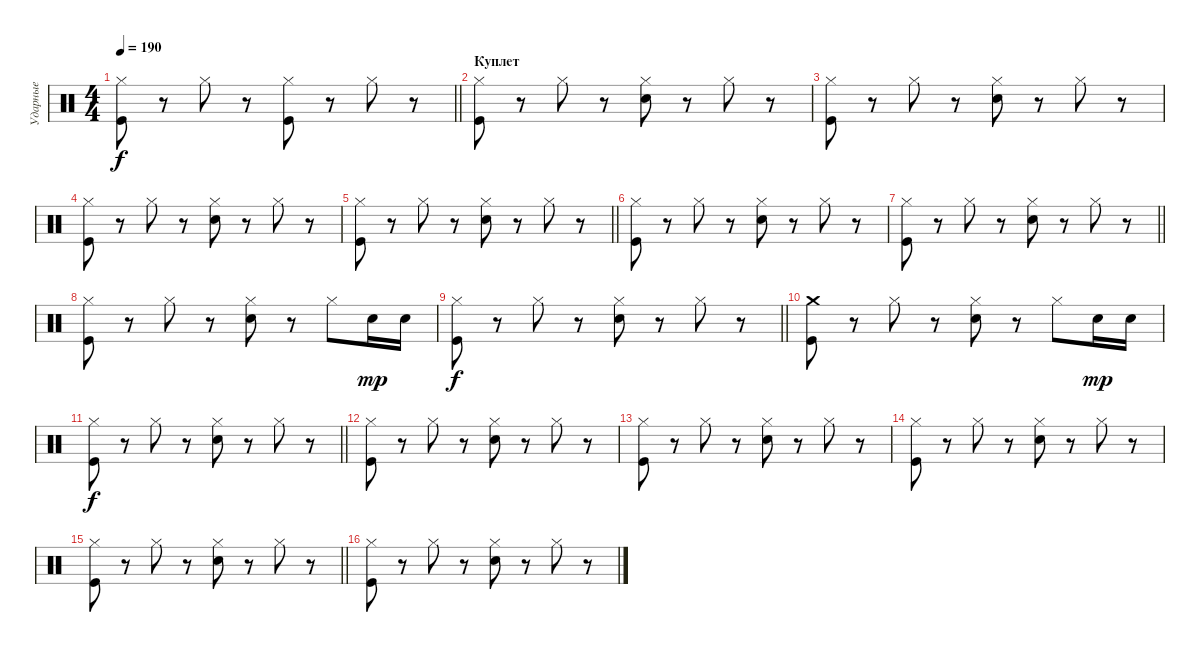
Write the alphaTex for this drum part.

\track ("Ударные" "Ударные") {instrument percussion}
\staff {score}
\articulation defaults
\ts (4 4)
\tempo 190
\clef neutral
\barLineRight lightlight
\ks c
("Hi-Hat (closed)" "Kick (hit)").8{dy f} r.8 "Hi-Hat (closed)".8 r.8 ("Hi-Hat (closed)" "Kick (hit)").8 r.8 "Hi-Hat (closed)".8 r.8 |
\section ("" "Куплет")
("Hi-Hat (closed)" "Kick (hit)").8 r.8 "Hi-Hat (closed)".8 r.8 ("Hi-Hat (closed)" "Electric Snare (hit)").8 r.8 "Hi-Hat (closed)".8 r.8 |
("Hi-Hat (closed)" "Kick (hit)").8 r.8 "Hi-Hat (closed)".8 r.8 ("Hi-Hat (closed)" "Electric Snare (hit)").8 r.8 "Hi-Hat (closed)".8 r.8 |
("Hi-Hat (closed)" "Kick (hit)").8 r.8 "Hi-Hat (closed)".8 r.8 ("Hi-Hat (closed)" "Electric Snare (hit)").8 r.8 "Hi-Hat (closed)".8 r.8 |
\barLineRight lightlight
("Hi-Hat (closed)" "Kick (hit)").8 r.8 "Hi-Hat (closed)".8 r.8 ("Hi-Hat (closed)" "Electric Snare (hit)").8 r.8 "Hi-Hat (closed)".8 r.8 |
("Hi-Hat (closed)" "Kick (hit)").8 r.8 "Hi-Hat (closed)".8 r.8 ("Hi-Hat (closed)" "Electric Snare (hit)").8 r.8 "Hi-Hat (closed)".8 r.8 |
\barLineRight lightlight
("Hi-Hat (closed)" "Kick (hit)").8 r.8 "Hi-Hat (closed)".8 r.8 ("Hi-Hat (closed)" "Electric Snare (hit)").8 r.8 "Hi-Hat (closed)".8 r.8 |
("Hi-Hat (closed)" "Kick (hit)").8 r.8 "Hi-Hat (closed)".8 r.8 ("Hi-Hat (closed)" "Electric Snare (hit)").8 r.8 "Hi-Hat (closed)".8 "Electric Snare (hit)".16{dy mp} "Electric Snare (hit)".16 |
\barLineRight lightlight
("Hi-Hat (closed)" "Kick (hit)").8{dy f} r.8 "Hi-Hat (closed)".8 r.8 ("Hi-Hat (closed)" "Electric Snare (hit)").8 r.8 "Hi-Hat (closed)".8 r.8 |
\section ("" " ")
("Crash medium (hit)" "Kick (hit)").8 r.8 "Hi-Hat (closed)".8 r.8 ("Hi-Hat (closed)" "Electric Snare (hit)").8 r.8 "Hi-Hat (closed)".8 "Electric Snare (hit)".16{dy mp} "Electric Snare (hit)".16 |
\barLineRight lightlight
("Hi-Hat (closed)" "Kick (hit)").8{dy f} r.8 "Hi-Hat (closed)".8 r.8 ("Hi-Hat (closed)" "Electric Snare (hit)").8 r.8 "Hi-Hat (closed)".8 r.8 |
("Hi-Hat (closed)" "Kick (hit)").8 r.8 "Hi-Hat (closed)".8 r.8 ("Hi-Hat (closed)" "Electric Snare (hit)").8 r.8 "Hi-Hat (closed)".8 r.8 |
("Hi-Hat (closed)" "Kick (hit)").8 r.8 "Hi-Hat (closed)".8 r.8 ("Hi-Hat (closed)" "Electric Snare (hit)").8 r.8 "Hi-Hat (closed)".8 r.8 |
("Hi-Hat (closed)" "Kick (hit)").8 r.8 "Hi-Hat (closed)".8 r.8 ("Hi-Hat (closed)" "Electric Snare (hit)").8 r.8 "Hi-Hat (closed)".8 r.8 |
\barLineRight lightlight
("Hi-Hat (closed)" "Kick (hit)").8 r.8 "Hi-Hat (closed)".8 r.8 ("Hi-Hat (closed)" "Electric Snare (hit)").8 r.8 "Hi-Hat (closed)".8 r.8 |
("Hi-Hat (closed)" "Kick (hit)").8 r.8 "Hi-Hat (closed)".8 r.8 ("Hi-Hat (closed)" "Electric Snare (hit)").8 r.8 "Hi-Hat (closed)".8 r.8
